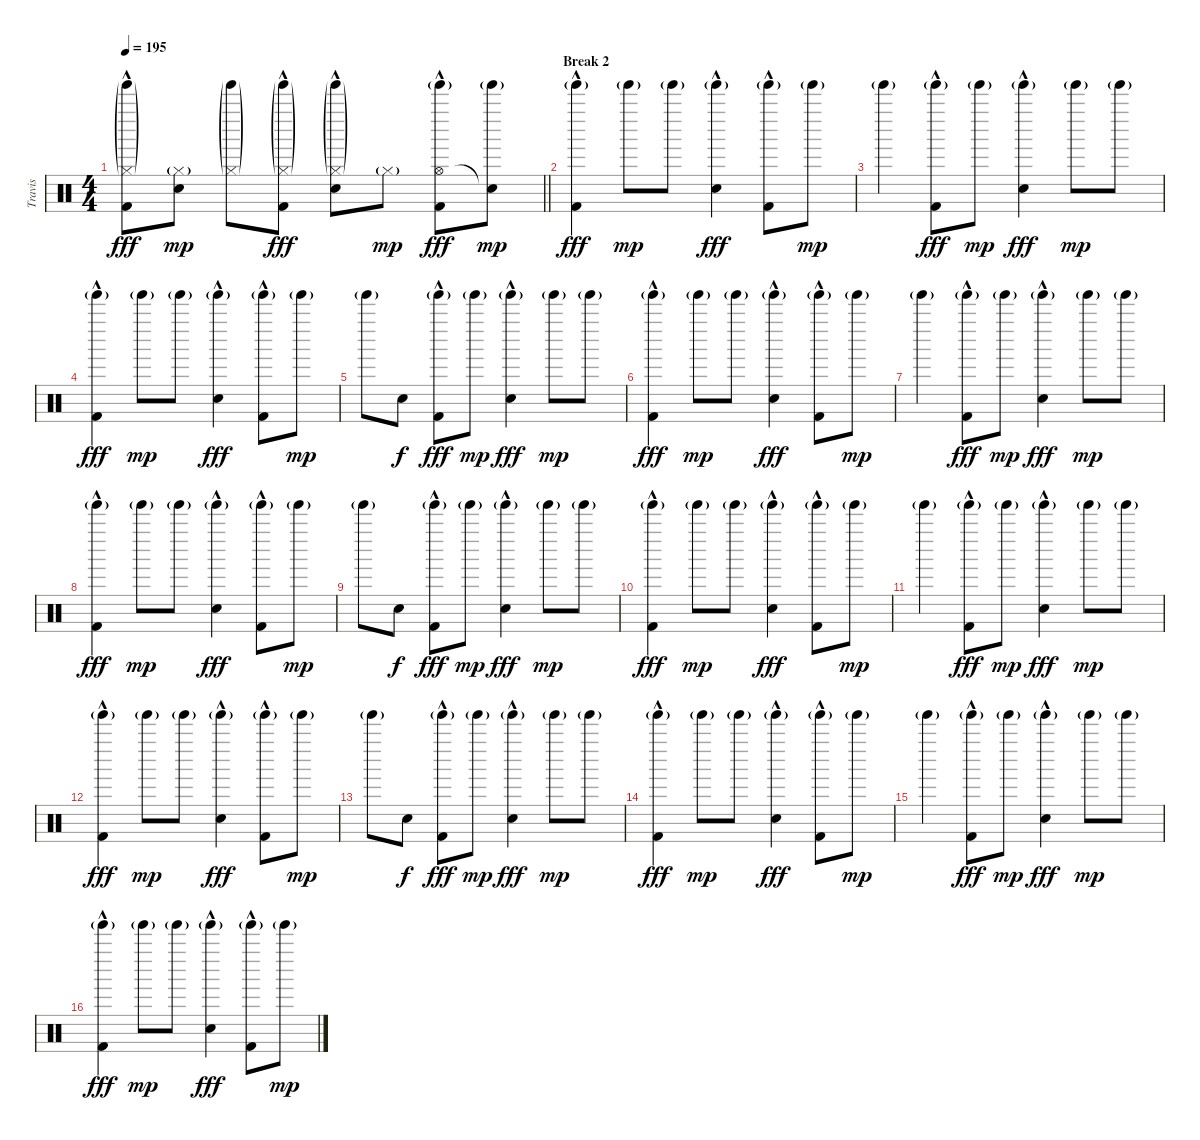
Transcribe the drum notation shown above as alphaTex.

\track ("Travis" "Travis") {instrument percussion}
\staff {score}
\articulation defaults
\ts (4 4)
\tempo 195
\clef neutral
\barLineRight lightlight
\ks c
("Tinkle Bell (hit)"{g} "Hi-Hat (closed)"{g} "Kick (hit) 2"{hac}).8{dy fff} ("Hi-Hat (closed)"{g} "Electric Snare (hit)").8{dy mp} ("Tinkle Bell (hit)"{g} "Hi-Hat (closed)"{g}).8 ("Tinkle Bell (hit)"{g} "Hi-Hat (closed)"{g} "Kick (hit) 2"{hac}).8{dy fff} ("Tinkle Bell (hit)"{g} "Hi-Hat (closed)"{g} "Electric Snare (hit)"{hac}).8 "Hi-Hat (closed)"{g}.8{dy mp} ("Tinkle Bell (hit)"{g} "Hi-Hat (open)" "Kick (hit) 2"{hac}).8{dy fff} ("Tinkle Bell (hit)"{g} "Snare (hit)"{t}).8{dy mp} |
\section ("" "Break 2")
("Tinkle Bell (hit)"{g} "Kick (hit) 2"{hac}).4{dy fff} "Tinkle Bell (hit)"{g}.8{dy mp} "Tinkle Bell (hit)"{g}.8 ("Tinkle Bell (hit)"{g} "Electric Snare (hit)"{hac}).4{dy fff} ("Tinkle Bell (hit)"{g} "Kick (hit) 2"{hac}).8 "Tinkle Bell (hit)"{g}.8{dy mp} |
"Tinkle Bell (hit)"{g}.4 ("Tinkle Bell (hit)"{g} "Kick (hit) 2"{hac}).8{dy fff} "Tinkle Bell (hit)"{g}.8{dy mp} ("Tinkle Bell (hit)"{g} "Electric Snare (hit)"{hac}).4{dy fff} "Tinkle Bell (hit)"{g}.8{dy mp} "Tinkle Bell (hit)"{g}.8 |
("Tinkle Bell (hit)"{g} "Kick (hit) 2"{hac}).4{dy fff} "Tinkle Bell (hit)"{g}.8{dy mp} "Tinkle Bell (hit)"{g}.8 ("Tinkle Bell (hit)"{g} "Electric Snare (hit)"{hac}).4{dy fff} ("Tinkle Bell (hit)"{g} "Kick (hit) 2"{hac}).8 "Tinkle Bell (hit)"{g}.8{dy mp} |
"Tinkle Bell (hit)"{g}.8 "Electric Snare (hit)".8{dy f} ("Tinkle Bell (hit)"{g} "Kick (hit) 2"{hac}).8{dy fff} "Tinkle Bell (hit)"{g}.8{dy mp} ("Tinkle Bell (hit)"{g} "Electric Snare (hit)"{hac}).4{dy fff} "Tinkle Bell (hit)"{g}.8{dy mp} "Tinkle Bell (hit)"{g}.8 |
("Tinkle Bell (hit)"{g} "Kick (hit) 2"{hac}).4{dy fff} "Tinkle Bell (hit)"{g}.8{dy mp} "Tinkle Bell (hit)"{g}.8 ("Tinkle Bell (hit)"{g} "Electric Snare (hit)"{hac}).4{dy fff} ("Tinkle Bell (hit)"{g} "Kick (hit) 2"{hac}).8 "Tinkle Bell (hit)"{g}.8{dy mp} |
"Tinkle Bell (hit)"{g}.4 ("Tinkle Bell (hit)"{g} "Kick (hit) 2"{hac}).8{dy fff} "Tinkle Bell (hit)"{g}.8{dy mp} ("Tinkle Bell (hit)"{g} "Electric Snare (hit)"{hac}).4{dy fff} "Tinkle Bell (hit)"{g}.8{dy mp} "Tinkle Bell (hit)"{g}.8 |
("Tinkle Bell (hit)"{g} "Kick (hit) 2"{hac}).4{dy fff} "Tinkle Bell (hit)"{g}.8{dy mp} "Tinkle Bell (hit)"{g}.8 ("Tinkle Bell (hit)"{g} "Electric Snare (hit)"{hac}).4{dy fff} ("Tinkle Bell (hit)"{g} "Kick (hit) 2"{hac}).8 "Tinkle Bell (hit)"{g}.8{dy mp} |
"Tinkle Bell (hit)"{g}.8 "Electric Snare (hit)".8{dy f} ("Tinkle Bell (hit)"{g} "Kick (hit) 2"{hac}).8{dy fff} "Tinkle Bell (hit)"{g}.8{dy mp} ("Tinkle Bell (hit)"{g} "Electric Snare (hit)"{hac}).4{dy fff} "Tinkle Bell (hit)"{g}.8{dy mp} "Tinkle Bell (hit)"{g}.8 |
("Tinkle Bell (hit)"{g} "Kick (hit) 2"{hac}).4{dy fff} "Tinkle Bell (hit)"{g}.8{dy mp} "Tinkle Bell (hit)"{g}.8 ("Tinkle Bell (hit)"{g} "Electric Snare (hit)"{hac}).4{dy fff} ("Tinkle Bell (hit)"{g} "Kick (hit) 2"{hac}).8 "Tinkle Bell (hit)"{g}.8{dy mp} |
"Tinkle Bell (hit)"{g}.4 ("Tinkle Bell (hit)"{g} "Kick (hit) 2"{hac}).8{dy fff} "Tinkle Bell (hit)"{g}.8{dy mp} ("Tinkle Bell (hit)"{g} "Electric Snare (hit)"{hac}).4{dy fff} "Tinkle Bell (hit)"{g}.8{dy mp} "Tinkle Bell (hit)"{g}.8 |
("Tinkle Bell (hit)"{g} "Kick (hit) 2"{hac}).4{dy fff} "Tinkle Bell (hit)"{g}.8{dy mp} "Tinkle Bell (hit)"{g}.8 ("Tinkle Bell (hit)"{g} "Electric Snare (hit)"{hac}).4{dy fff} ("Tinkle Bell (hit)"{g} "Kick (hit) 2"{hac}).8 "Tinkle Bell (hit)"{g}.8{dy mp} |
"Tinkle Bell (hit)"{g}.8 "Electric Snare (hit)".8{dy f} ("Tinkle Bell (hit)"{g} "Kick (hit) 2"{hac}).8{dy fff} "Tinkle Bell (hit)"{g}.8{dy mp} ("Tinkle Bell (hit)"{g} "Electric Snare (hit)"{hac}).4{dy fff} "Tinkle Bell (hit)"{g}.8{dy mp} "Tinkle Bell (hit)"{g}.8 |
("Tinkle Bell (hit)"{g} "Kick (hit) 2"{hac}).4{dy fff} "Tinkle Bell (hit)"{g}.8{dy mp} "Tinkle Bell (hit)"{g}.8 ("Tinkle Bell (hit)"{g} "Electric Snare (hit)"{hac}).4{dy fff} ("Tinkle Bell (hit)"{g} "Kick (hit) 2"{hac}).8 "Tinkle Bell (hit)"{g}.8{dy mp} |
"Tinkle Bell (hit)"{g}.4 ("Tinkle Bell (hit)"{g} "Kick (hit) 2"{hac}).8{dy fff} "Tinkle Bell (hit)"{g}.8{dy mp} ("Tinkle Bell (hit)"{g} "Electric Snare (hit)"{hac}).4{dy fff} "Tinkle Bell (hit)"{g}.8{dy mp} "Tinkle Bell (hit)"{g}.8 |
("Tinkle Bell (hit)"{g} "Kick (hit) 2"{hac}).4{dy fff} "Tinkle Bell (hit)"{g}.8{dy mp} "Tinkle Bell (hit)"{g}.8 ("Tinkle Bell (hit)"{g} "Electric Snare (hit)"{hac}).4{dy fff} ("Tinkle Bell (hit)"{g} "Kick (hit) 2"{hac}).8 "Tinkle Bell (hit)"{g}.8{dy mp}
